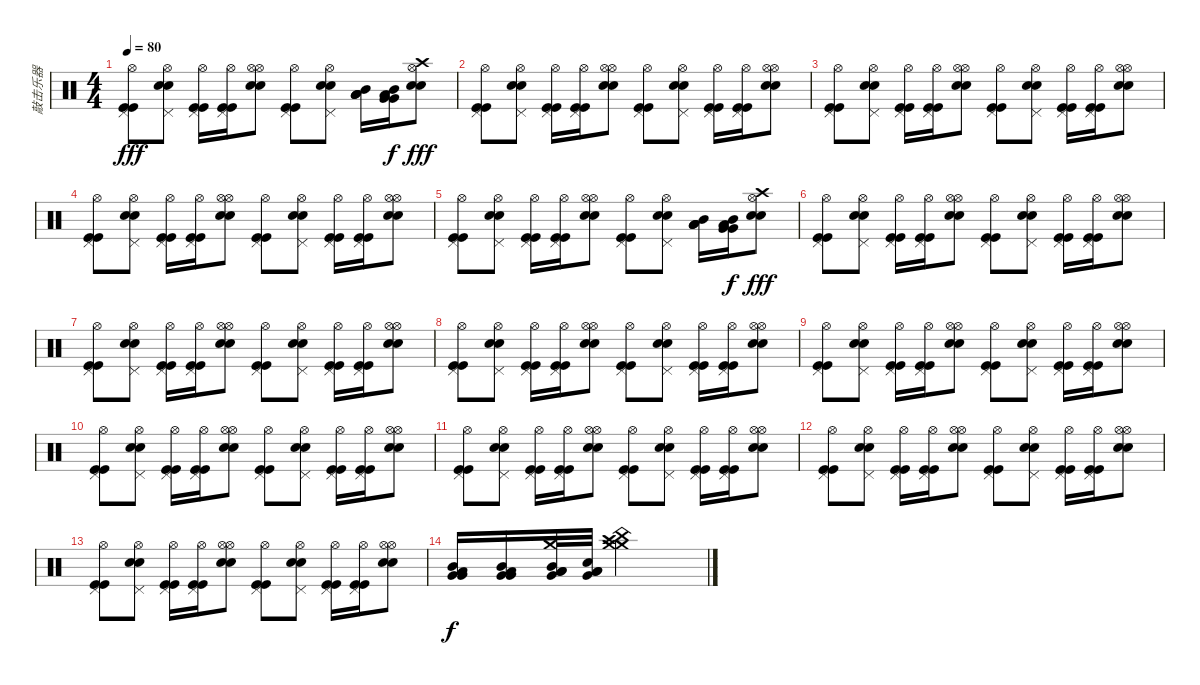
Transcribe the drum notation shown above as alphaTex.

\track ("敲击乐器" "敲击乐器") {instrument percussion}
\staff {score}
\articulation defaults
\ts (4 4)
\tempo 80
\clef neutral
\ks c
("Kick (hit)" "Kick (hit)" "Pedal Hi-Hat (hit)" "Hi-Hat (open)").8{dy fff} ("Electric Snare (hit)" "Electric Snare (hit)" "Pedal Hi-Hat (hit)" "Hi-Hat (open)").8 ("Kick (hit)" "Kick (hit)" "Pedal Hi-Hat (hit)" "Hi-Hat (open)").16 ("Kick (hit)" "Kick (hit)" "Pedal Hi-Hat (hit)" "Hi-Hat (open)").16 ("Electric Snare (hit)" "Electric Snare (hit)" "Hi-Hat (open)" "Hi-Hat (open)").8 ("Kick (hit)" "Kick (hit)" "Pedal Hi-Hat (hit)" "Hi-Hat (open)").8 ("Electric Snare (hit)" "Electric Snare (hit)" "Pedal Hi-Hat (hit)" "Hi-Hat (open)").8 ("Low Floor Tom (hit)" "Low Floor Tom (hit)" "Mid Tom (hit)" "Low Floor Tom (hit)").16 ("Very Low Tom (hit)" "Very Low Tom (hit)" "Mid Tom (hit)" "Low Floor Tom (hit)").16{dy f} ("Electric Snare (hit)" "Electric Snare (hit)" "Hi-Hat (open)" "Crash high (hit)").8{dy fff} |
("Kick (hit)" "Kick (hit)" "Pedal Hi-Hat (hit)" "Hi-Hat (open)").8 ("Electric Snare (hit)" "Electric Snare (hit)" "Pedal Hi-Hat (hit)" "Hi-Hat (open)").8 ("Kick (hit)" "Kick (hit)" "Pedal Hi-Hat (hit)" "Hi-Hat (open)").16 ("Kick (hit)" "Kick (hit)" "Pedal Hi-Hat (hit)" "Hi-Hat (open)").16 ("Electric Snare (hit)" "Electric Snare (hit)" "Hi-Hat (open)" "Hi-Hat (open)").8 ("Kick (hit)" "Kick (hit)" "Pedal Hi-Hat (hit)" "Hi-Hat (open)").8 ("Electric Snare (hit)" "Electric Snare (hit)" "Pedal Hi-Hat (hit)" "Hi-Hat (open)").8 ("Kick (hit)" "Kick (hit)" "Pedal Hi-Hat (hit)" "Hi-Hat (open)").16 ("Kick (hit)" "Kick (hit)" "Pedal Hi-Hat (hit)" "Hi-Hat (open)").16 ("Electric Snare (hit)" "Electric Snare (hit)" "Hi-Hat (open)" "Hi-Hat (open)").8 |
("Kick (hit)" "Kick (hit)" "Pedal Hi-Hat (hit)" "Hi-Hat (open)").8 ("Electric Snare (hit)" "Electric Snare (hit)" "Pedal Hi-Hat (hit)" "Hi-Hat (open)").8 ("Kick (hit)" "Kick (hit)" "Pedal Hi-Hat (hit)" "Hi-Hat (open)").16 ("Kick (hit)" "Kick (hit)" "Pedal Hi-Hat (hit)" "Hi-Hat (open)").16 ("Electric Snare (hit)" "Electric Snare (hit)" "Hi-Hat (open)" "Hi-Hat (open)").8 ("Kick (hit)" "Kick (hit)" "Pedal Hi-Hat (hit)" "Hi-Hat (open)").8 ("Electric Snare (hit)" "Electric Snare (hit)" "Pedal Hi-Hat (hit)" "Hi-Hat (open)").8 ("Kick (hit)" "Kick (hit)" "Pedal Hi-Hat (hit)" "Hi-Hat (open)").16 ("Kick (hit)" "Kick (hit)" "Pedal Hi-Hat (hit)" "Hi-Hat (open)").16 ("Electric Snare (hit)" "Electric Snare (hit)" "Hi-Hat (open)" "Hi-Hat (open)").8 |
("Kick (hit)" "Kick (hit)" "Pedal Hi-Hat (hit)" "Hi-Hat (open)").8 ("Electric Snare (hit)" "Electric Snare (hit)" "Pedal Hi-Hat (hit)" "Hi-Hat (open)").8 ("Kick (hit)" "Kick (hit)" "Pedal Hi-Hat (hit)" "Hi-Hat (open)").16 ("Kick (hit)" "Kick (hit)" "Pedal Hi-Hat (hit)" "Hi-Hat (open)").16 ("Electric Snare (hit)" "Electric Snare (hit)" "Hi-Hat (open)" "Hi-Hat (open)").8 ("Kick (hit)" "Kick (hit)" "Pedal Hi-Hat (hit)" "Hi-Hat (open)").8 ("Electric Snare (hit)" "Electric Snare (hit)" "Pedal Hi-Hat (hit)" "Hi-Hat (open)").8 ("Kick (hit)" "Kick (hit)" "Pedal Hi-Hat (hit)" "Hi-Hat (open)").16 ("Kick (hit)" "Kick (hit)" "Pedal Hi-Hat (hit)" "Hi-Hat (open)").16 ("Electric Snare (hit)" "Electric Snare (hit)" "Hi-Hat (open)" "Hi-Hat (open)").8 |
("Kick (hit)" "Kick (hit)" "Pedal Hi-Hat (hit)" "Hi-Hat (open)").8 ("Electric Snare (hit)" "Electric Snare (hit)" "Pedal Hi-Hat (hit)" "Hi-Hat (open)").8 ("Kick (hit)" "Kick (hit)" "Pedal Hi-Hat (hit)" "Hi-Hat (open)").16 ("Kick (hit)" "Kick (hit)" "Pedal Hi-Hat (hit)" "Hi-Hat (open)").16 ("Electric Snare (hit)" "Electric Snare (hit)" "Hi-Hat (open)" "Hi-Hat (open)").8 ("Kick (hit)" "Kick (hit)" "Pedal Hi-Hat (hit)" "Hi-Hat (open)").8 ("Electric Snare (hit)" "Electric Snare (hit)" "Pedal Hi-Hat (hit)" "Hi-Hat (open)").8 ("Low Floor Tom (hit)" "Low Floor Tom (hit)" "Mid Tom (hit)" "Low Floor Tom (hit)").16 ("Very Low Tom (hit)" "Very Low Tom (hit)" "Mid Tom (hit)" "Low Floor Tom (hit)").16{dy f} ("Electric Snare (hit)" "Electric Snare (hit)" "Hi-Hat (open)" "Crash high (hit)").8{dy fff} |
("Kick (hit)" "Kick (hit)" "Pedal Hi-Hat (hit)" "Hi-Hat (open)").8 ("Electric Snare (hit)" "Electric Snare (hit)" "Pedal Hi-Hat (hit)" "Hi-Hat (open)").8 ("Kick (hit)" "Kick (hit)" "Pedal Hi-Hat (hit)" "Hi-Hat (open)").16 ("Kick (hit)" "Kick (hit)" "Pedal Hi-Hat (hit)" "Hi-Hat (open)").16 ("Electric Snare (hit)" "Electric Snare (hit)" "Hi-Hat (open)" "Hi-Hat (open)").8 ("Kick (hit)" "Kick (hit)" "Pedal Hi-Hat (hit)" "Hi-Hat (open)").8 ("Electric Snare (hit)" "Electric Snare (hit)" "Pedal Hi-Hat (hit)" "Hi-Hat (open)").8 ("Kick (hit)" "Kick (hit)" "Pedal Hi-Hat (hit)" "Hi-Hat (open)").16 ("Kick (hit)" "Kick (hit)" "Pedal Hi-Hat (hit)" "Hi-Hat (open)").16 ("Electric Snare (hit)" "Electric Snare (hit)" "Hi-Hat (open)" "Hi-Hat (open)").8 |
("Kick (hit)" "Kick (hit)" "Pedal Hi-Hat (hit)" "Hi-Hat (open)").8 ("Electric Snare (hit)" "Electric Snare (hit)" "Pedal Hi-Hat (hit)" "Hi-Hat (open)").8 ("Kick (hit)" "Kick (hit)" "Pedal Hi-Hat (hit)" "Hi-Hat (open)").16 ("Kick (hit)" "Kick (hit)" "Pedal Hi-Hat (hit)" "Hi-Hat (open)").16 ("Electric Snare (hit)" "Electric Snare (hit)" "Hi-Hat (open)" "Hi-Hat (open)").8 ("Kick (hit)" "Kick (hit)" "Pedal Hi-Hat (hit)" "Hi-Hat (open)").8 ("Electric Snare (hit)" "Electric Snare (hit)" "Pedal Hi-Hat (hit)" "Hi-Hat (open)").8 ("Kick (hit)" "Kick (hit)" "Pedal Hi-Hat (hit)" "Hi-Hat (open)").16 ("Kick (hit)" "Kick (hit)" "Pedal Hi-Hat (hit)" "Hi-Hat (open)").16 ("Electric Snare (hit)" "Electric Snare (hit)" "Hi-Hat (open)" "Hi-Hat (open)").8 |
("Kick (hit)" "Kick (hit)" "Pedal Hi-Hat (hit)" "Hi-Hat (open)").8 ("Electric Snare (hit)" "Electric Snare (hit)" "Pedal Hi-Hat (hit)" "Hi-Hat (open)").8 ("Kick (hit)" "Kick (hit)" "Pedal Hi-Hat (hit)" "Hi-Hat (open)").16 ("Kick (hit)" "Kick (hit)" "Pedal Hi-Hat (hit)" "Hi-Hat (open)").16 ("Electric Snare (hit)" "Electric Snare (hit)" "Hi-Hat (open)" "Hi-Hat (open)").8 ("Kick (hit)" "Kick (hit)" "Pedal Hi-Hat (hit)" "Hi-Hat (open)").8 ("Electric Snare (hit)" "Electric Snare (hit)" "Pedal Hi-Hat (hit)" "Hi-Hat (open)").8 ("Kick (hit)" "Kick (hit)" "Pedal Hi-Hat (hit)" "Hi-Hat (open)").16 ("Kick (hit)" "Kick (hit)" "Pedal Hi-Hat (hit)" "Hi-Hat (open)").16 ("Electric Snare (hit)" "Electric Snare (hit)" "Hi-Hat (open)" "Hi-Hat (open)").8 |
("Kick (hit)" "Kick (hit)" "Pedal Hi-Hat (hit)" "Hi-Hat (open)").8 ("Electric Snare (hit)" "Electric Snare (hit)" "Pedal Hi-Hat (hit)" "Hi-Hat (open)").8 ("Kick (hit)" "Kick (hit)" "Pedal Hi-Hat (hit)" "Hi-Hat (open)").16 ("Kick (hit)" "Kick (hit)" "Pedal Hi-Hat (hit)" "Hi-Hat (open)").16 ("Electric Snare (hit)" "Electric Snare (hit)" "Hi-Hat (open)" "Hi-Hat (open)").8 ("Kick (hit)" "Kick (hit)" "Pedal Hi-Hat (hit)" "Hi-Hat (open)").8 ("Electric Snare (hit)" "Electric Snare (hit)" "Pedal Hi-Hat (hit)" "Hi-Hat (open)").8 ("Kick (hit)" "Kick (hit)" "Pedal Hi-Hat (hit)" "Hi-Hat (open)").16 ("Kick (hit)" "Kick (hit)" "Pedal Hi-Hat (hit)" "Hi-Hat (open)").16 ("Electric Snare (hit)" "Electric Snare (hit)" "Hi-Hat (open)" "Hi-Hat (open)").8 |
("Kick (hit)" "Kick (hit)" "Pedal Hi-Hat (hit)" "Hi-Hat (open)").8 ("Electric Snare (hit)" "Electric Snare (hit)" "Pedal Hi-Hat (hit)" "Hi-Hat (open)").8 ("Kick (hit)" "Kick (hit)" "Pedal Hi-Hat (hit)" "Hi-Hat (open)").16 ("Kick (hit)" "Kick (hit)" "Pedal Hi-Hat (hit)" "Hi-Hat (open)").16 ("Electric Snare (hit)" "Electric Snare (hit)" "Hi-Hat (open)" "Hi-Hat (open)").8 ("Kick (hit)" "Kick (hit)" "Pedal Hi-Hat (hit)" "Hi-Hat (open)").8 ("Electric Snare (hit)" "Electric Snare (hit)" "Pedal Hi-Hat (hit)" "Hi-Hat (open)").8 ("Kick (hit)" "Kick (hit)" "Pedal Hi-Hat (hit)" "Hi-Hat (open)").16 ("Kick (hit)" "Kick (hit)" "Pedal Hi-Hat (hit)" "Hi-Hat (open)").16 ("Electric Snare (hit)" "Electric Snare (hit)" "Hi-Hat (open)" "Hi-Hat (open)").8 |
("Kick (hit)" "Kick (hit)" "Pedal Hi-Hat (hit)" "Hi-Hat (open)").8 ("Electric Snare (hit)" "Electric Snare (hit)" "Pedal Hi-Hat (hit)" "Hi-Hat (open)").8 ("Kick (hit)" "Kick (hit)" "Pedal Hi-Hat (hit)" "Hi-Hat (open)").16 ("Kick (hit)" "Kick (hit)" "Pedal Hi-Hat (hit)" "Hi-Hat (open)").16 ("Electric Snare (hit)" "Electric Snare (hit)" "Hi-Hat (open)" "Hi-Hat (open)").8 ("Kick (hit)" "Kick (hit)" "Pedal Hi-Hat (hit)" "Hi-Hat (open)").8 ("Electric Snare (hit)" "Electric Snare (hit)" "Pedal Hi-Hat (hit)" "Hi-Hat (open)").8 ("Kick (hit)" "Kick (hit)" "Pedal Hi-Hat (hit)" "Hi-Hat (open)").16 ("Kick (hit)" "Kick (hit)" "Pedal Hi-Hat (hit)" "Hi-Hat (open)").16 ("Electric Snare (hit)" "Electric Snare (hit)" "Hi-Hat (open)" "Hi-Hat (open)").8 |
("Kick (hit)" "Kick (hit)" "Pedal Hi-Hat (hit)" "Hi-Hat (open)").8 ("Electric Snare (hit)" "Electric Snare (hit)" "Pedal Hi-Hat (hit)" "Hi-Hat (open)").8 ("Kick (hit)" "Kick (hit)" "Pedal Hi-Hat (hit)" "Hi-Hat (open)").16 ("Kick (hit)" "Kick (hit)" "Pedal Hi-Hat (hit)" "Hi-Hat (open)").16 ("Electric Snare (hit)" "Electric Snare (hit)" "Hi-Hat (open)" "Hi-Hat (open)").8 ("Kick (hit)" "Kick (hit)" "Pedal Hi-Hat (hit)" "Hi-Hat (open)").8 ("Electric Snare (hit)" "Electric Snare (hit)" "Pedal Hi-Hat (hit)" "Hi-Hat (open)").8 ("Kick (hit)" "Kick (hit)" "Pedal Hi-Hat (hit)" "Hi-Hat (open)").16 ("Kick (hit)" "Kick (hit)" "Pedal Hi-Hat (hit)" "Hi-Hat (open)").16 ("Electric Snare (hit)" "Electric Snare (hit)" "Hi-Hat (open)" "Hi-Hat (open)").8 |
("Kick (hit)" "Kick (hit)" "Pedal Hi-Hat (hit)" "Hi-Hat (open)").8 ("Electric Snare (hit)" "Electric Snare (hit)" "Pedal Hi-Hat (hit)" "Hi-Hat (open)").8 ("Kick (hit)" "Kick (hit)" "Pedal Hi-Hat (hit)" "Hi-Hat (open)").16 ("Kick (hit)" "Kick (hit)" "Pedal Hi-Hat (hit)" "Hi-Hat (open)").16 ("Electric Snare (hit)" "Electric Snare (hit)" "Hi-Hat (open)" "Hi-Hat (open)").8 ("Kick (hit)" "Kick (hit)" "Pedal Hi-Hat (hit)" "Hi-Hat (open)").8 ("Electric Snare (hit)" "Electric Snare (hit)" "Pedal Hi-Hat (hit)" "Hi-Hat (open)").8 ("Kick (hit)" "Kick (hit)" "Pedal Hi-Hat (hit)" "Hi-Hat (open)").16 ("Kick (hit)" "Kick (hit)" "Pedal Hi-Hat (hit)" "Hi-Hat (open)").16 ("Electric Snare (hit)" "Electric Snare (hit)" "Hi-Hat (open)" "Hi-Hat (open)").8 |
("Mid Tom (hit)" "Very Low Tom (hit)" "Very Low Tom (hit)" "Low Floor Tom (hit)").16{dy f} ("Mid Tom (hit)" "Very Low Tom (hit)" "Very Low Tom (hit)" "Low Floor Tom (hit)").16 ("Crash medium (hit)" "Low Tom (hit)" "Mid Tom (hit)" "Very Low Tom (hit)" "Low Tom (hit)").32 ("Low Tom (hit)" "Very Low Tom (hit)" "Snare (hit) 2" "Low Tom (hit)").32 ("Crash medium (hit)" "Crash medium (hit)" "China (hit)" "Crash high (hit)").2
